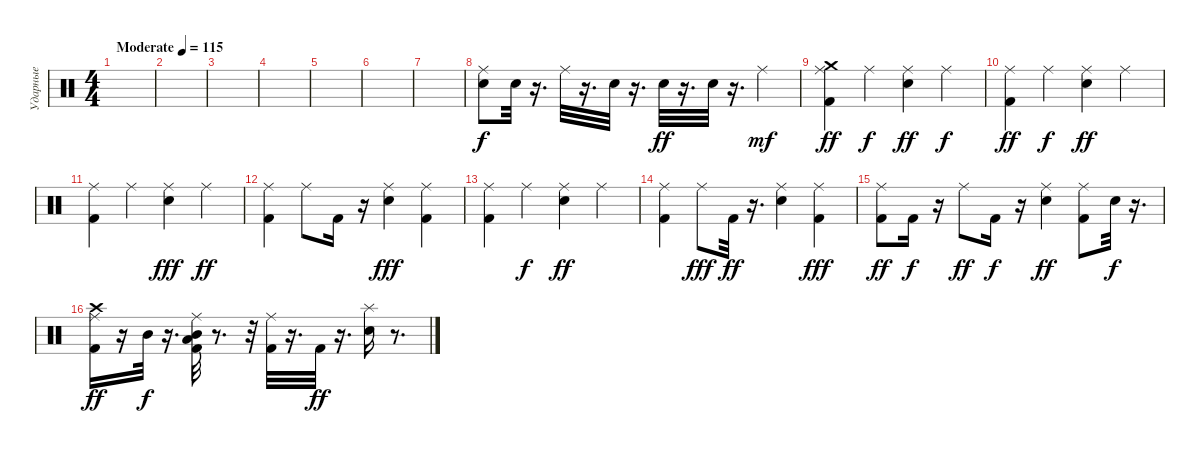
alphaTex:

\track ("Ударные" "Ударные") {instrument percussion}
\staff {score}
\articulation defaults
\ts (4 4)
\tempo (115 "Moderate")
\clef neutral
\ks c
|
|
|
|
|
|
|
("Snare (hit) 2" "Ride (middle)").8 "Snare (hit) 2".32 r.16{d} "Ride (middle)".32{dy f} r.16{d} "Snare (hit) 2".32 r.16{d} "Snare (hit) 2".32{dy ff} r.16{d} "Snare (hit) 2".32 r.16{d} "Ride (middle)".4{dy mf} |
("Kick (hit) 2" "Ride (middle)" "Crash medium (hit)").4{dy ff} "Ride (middle)".4{dy f} ("Snare (hit) 2" "Ride (middle)").4{dy ff} "Ride (middle)".4{dy f} |
("Kick (hit) 2" "Ride (middle)").4{dy ff} "Ride (middle)".4{dy f} ("Snare (hit) 2" "Ride (middle)").4{dy ff} "Ride (middle)".4 |
("Kick (hit) 2" "Ride (middle)").4 "Ride (middle)".4 ("Snare (hit) 2" "Ride (middle)").4{dy fff} "Ride (middle)".4{dy ff} |
("Kick (hit) 2" "Ride (middle)").4 "Ride (middle)".8 "Kick (hit) 2".16 r.16 ("Snare (hit) 2" "Ride (middle)").4{dy fff} ("Kick (hit) 2" "Ride (middle)").4 |
("Kick (hit) 2" "Ride (middle)").4 "Ride (middle)".4{dy f} ("Ride (middle)" "Snare (hit) 2").4{dy ff} "Ride (middle)".4 |
("Kick (hit) 2" "Ride (middle)").4 "Ride (middle)".8{dy fff} "Kick (hit) 2".32{dy ff} r.16{d} ("Snare (hit) 2" "Ride (middle)").4 ("Kick (hit) 2" "Ride (middle)").4{dy fff} |
("Kick (hit) 2" "Ride (middle)").8{dy ff} "Kick (hit) 2".16{dy f} r.16 "Ride (middle)".8{dy ff} "Kick (hit) 2".16{dy f} r.16 ("Snare (hit) 2" "Ride (middle)").4{dy ff} ("Kick (hit) 2" "Ride (middle)").8 "Snare (hit) 2".32{dy f} r.16{d} |
("Crash high (hit)" "Ride (middle)" "Kick (hit) 2").16{dy ff} r.16 "Mid Tom (hit)".32{dy f} r.16{d} ("Ride (middle)" "Low Tom (hit)" "Mid Tom (hit)" "Kick (hit) 2").32 r.8{d} r.32 ("Ride (middle)" "Kick (hit) 2").32 r.16{d} "Kick (hit) 2".32{dy ff} r.16{d} ("Splash (hit)" "Snare (hit) 2").16 r.8{d}
